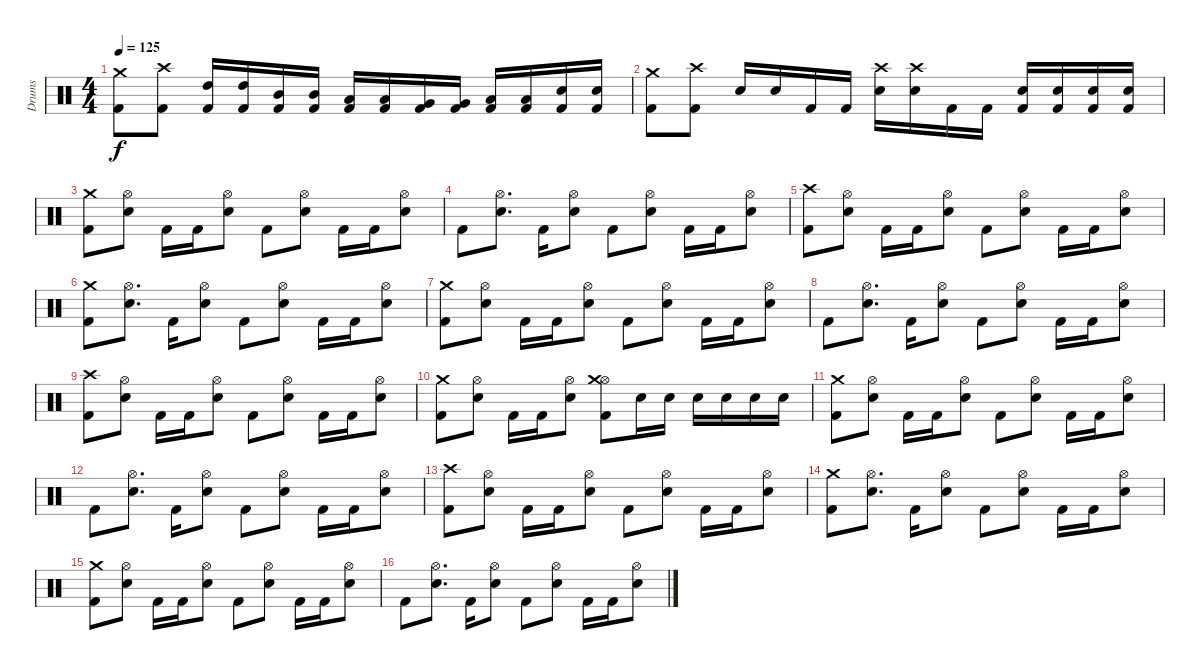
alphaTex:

\track ("Drums" "Drums") {instrument percussion}
\staff {score}
\articulation defaults
\ts (4 4)
\tempo 125
\clef neutral
\ks c
("Crash medium (hit)" "Kick (hit) 2").8{dy f} ("Crash high (hit)" "Kick (hit) 2").8 ("High Tom (hit)" "Kick (hit) 2").16 ("High Tom (hit)" "Kick (hit) 2").16 ("Mid Tom (hit)" "Kick (hit) 2").16 ("Mid Tom (hit)" "Kick (hit) 2").16 ("Low Tom (hit)" "Kick (hit) 2").16 ("Low Tom (hit)" "Kick (hit) 2").16 ("Very Low Tom (hit)" "Kick (hit) 2").16 ("Very Low Tom (hit)" "Kick (hit) 2").16 ("Low Floor Tom (hit)" "Kick (hit) 2").16 ("Low Floor Tom (hit)" "Kick (hit) 2").16 ("Snare (hit) 2" "Kick (hit) 2").16 ("Snare (hit) 2" "Kick (hit) 2").16 |
("Crash medium (hit)" "Kick (hit) 2").8 ("Crash high (hit)" "Kick (hit) 2").8 "Snare (hit) 2".16 "Snare (hit) 2".16 "Kick (hit) 2".16 "Kick (hit) 2".16 ("Crash high (hit)" "Snare (hit) 2").16 ("Crash high (hit)" "Snare (hit) 2").16 "Kick (hit) 2".16 "Kick (hit) 2".16 ("Snare (hit) 2" "Kick (hit) 2").16 ("Snare (hit) 2" "Kick (hit) 2").16 ("Snare (hit) 2" "Kick (hit) 2").16 ("Snare (hit) 2" "Kick (hit) 2").16 |
("Crash medium (hit)" "Kick (hit) 2").8 ("Hi-Hat (open)" "Snare (hit) 2").8 "Kick (hit) 2".16 "Kick (hit) 2".16 ("Hi-Hat (open)" "Snare (hit) 2").8 "Kick (hit) 2".8 ("Hi-Hat (open)" "Snare (hit) 2").8 "Kick (hit) 2".16 "Kick (hit) 2".16 ("Hi-Hat (open)" "Snare (hit) 2").8 |
"Kick (hit) 2".8 ("Hi-Hat (open)" "Snare (hit) 2").8{d} "Kick (hit) 2".16 ("Hi-Hat (open)" "Snare (hit) 2").8 "Kick (hit) 2".8 ("Hi-Hat (open)" "Snare (hit) 2").8 "Kick (hit) 2".16 "Kick (hit) 2".16 ("Hi-Hat (open)" "Snare (hit) 2").8 |
("Crash high (hit)" "Kick (hit) 2").8 ("Hi-Hat (open)" "Snare (hit) 2").8 "Kick (hit) 2".16 "Kick (hit) 2".16 ("Hi-Hat (open)" "Snare (hit) 2").8 "Kick (hit) 2".8 ("Hi-Hat (open)" "Snare (hit) 2").8 "Kick (hit) 2".16 "Kick (hit) 2".16 ("Hi-Hat (open)" "Snare (hit) 2").8 |
("Crash medium (hit)" "Kick (hit) 2").8 ("Hi-Hat (open)" "Snare (hit) 2").8{d} "Kick (hit) 2".16 ("Hi-Hat (open)" "Snare (hit) 2").8 "Kick (hit) 2".8 ("Hi-Hat (open)" "Snare (hit) 2").8 "Kick (hit) 2".16 "Kick (hit) 2".16 ("Hi-Hat (open)" "Snare (hit) 2").8 |
("Crash medium (hit)" "Kick (hit) 2").8 ("Hi-Hat (open)" "Snare (hit) 2").8 "Kick (hit) 2".16 "Kick (hit) 2".16 ("Hi-Hat (open)" "Snare (hit) 2").8 "Kick (hit) 2".8 ("Hi-Hat (open)" "Snare (hit) 2").8 "Kick (hit) 2".16 "Kick (hit) 2".16 ("Hi-Hat (open)" "Snare (hit) 2").8 |
"Kick (hit) 2".8 ("Hi-Hat (open)" "Snare (hit) 2").8{d} "Kick (hit) 2".16 ("Hi-Hat (open)" "Snare (hit) 2").8 "Kick (hit) 2".8 ("Hi-Hat (open)" "Snare (hit) 2").8 "Kick (hit) 2".16 "Kick (hit) 2".16 ("Hi-Hat (open)" "Snare (hit) 2").8 |
("Crash high (hit)" "Kick (hit) 2").8 ("Hi-Hat (open)" "Snare (hit) 2").8 "Kick (hit) 2".16 "Kick (hit) 2".16 ("Hi-Hat (open)" "Snare (hit) 2").8 "Kick (hit) 2".8 ("Hi-Hat (open)" "Snare (hit) 2").8 "Kick (hit) 2".16 "Kick (hit) 2".16 ("Hi-Hat (open)" "Snare (hit) 2").8 |
("Crash medium (hit)" "Kick (hit) 2").8 ("Hi-Hat (open)" "Snare (hit) 2").8 "Kick (hit) 2".16 "Kick (hit) 2".16 ("Hi-Hat (open)" "Snare (hit) 2").8 ("Hi-Hat (open)" "Crash medium (hit)" "Kick (hit) 2").8 "Electric Snare (hit)".16 "Electric Snare (hit)".16 "Electric Snare (hit)".16 "Electric Snare (hit)".16 "Electric Snare (hit)".16 "Electric Snare (hit)".16 |
("Crash medium (hit)" "Kick (hit) 2").8 ("Hi-Hat (open)" "Snare (hit) 2").8 "Kick (hit) 2".16 "Kick (hit) 2".16 ("Hi-Hat (open)" "Snare (hit) 2").8 "Kick (hit) 2".8 ("Hi-Hat (open)" "Snare (hit) 2").8 "Kick (hit) 2".16 "Kick (hit) 2".16 ("Hi-Hat (open)" "Snare (hit) 2").8 |
"Kick (hit) 2".8 ("Hi-Hat (open)" "Snare (hit) 2").8{d} "Kick (hit) 2".16 ("Hi-Hat (open)" "Snare (hit) 2").8 "Kick (hit) 2".8 ("Hi-Hat (open)" "Snare (hit) 2").8 "Kick (hit) 2".16 "Kick (hit) 2".16 ("Hi-Hat (open)" "Snare (hit) 2").8 |
("Crash high (hit)" "Kick (hit) 2").8 ("Hi-Hat (open)" "Snare (hit) 2").8 "Kick (hit) 2".16 "Kick (hit) 2".16 ("Hi-Hat (open)" "Snare (hit) 2").8 "Kick (hit) 2".8 ("Hi-Hat (open)" "Snare (hit) 2").8 "Kick (hit) 2".16 "Kick (hit) 2".16 ("Hi-Hat (open)" "Snare (hit) 2").8 |
("Crash medium (hit)" "Kick (hit) 2").8 ("Hi-Hat (open)" "Snare (hit) 2").8{d} "Kick (hit) 2".16 ("Hi-Hat (open)" "Snare (hit) 2").8 "Kick (hit) 2".8 ("Hi-Hat (open)" "Snare (hit) 2").8 "Kick (hit) 2".16 "Kick (hit) 2".16 ("Hi-Hat (open)" "Snare (hit) 2").8 |
("Crash medium (hit)" "Kick (hit) 2").8 ("Hi-Hat (open)" "Snare (hit) 2").8 "Kick (hit) 2".16 "Kick (hit) 2".16 ("Hi-Hat (open)" "Snare (hit) 2").8 "Kick (hit) 2".8 ("Hi-Hat (open)" "Snare (hit) 2").8 "Kick (hit) 2".16 "Kick (hit) 2".16 ("Hi-Hat (open)" "Snare (hit) 2").8 |
"Kick (hit) 2".8 ("Hi-Hat (open)" "Snare (hit) 2").8{d} "Kick (hit) 2".16 ("Hi-Hat (open)" "Snare (hit) 2").8 "Kick (hit) 2".8 ("Hi-Hat (open)" "Snare (hit) 2").8 "Kick (hit) 2".16 "Kick (hit) 2".16 ("Hi-Hat (open)" "Snare (hit) 2").8
